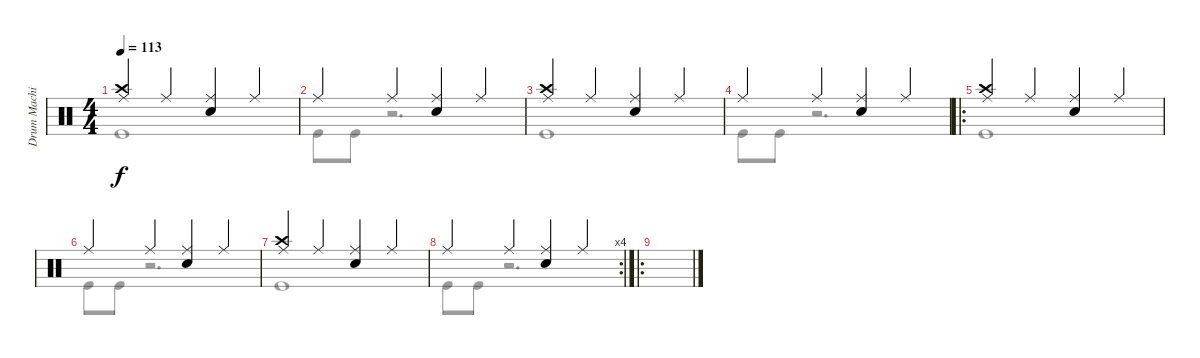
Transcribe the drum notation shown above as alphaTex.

\track ("Drum Machine" "Drum Machi") {instrument percussion}
\staff {score}
\articulation defaults
\voice
\ts (4 4)
\tempo 113
\clef neutral
\ks c
("Ride (middle)" "Crash high (hit)").4{dy f} "Ride (middle)".4 ("Ride (middle)" "Snare (hit) 2").4 "Ride (middle)".4 |
"Ride (middle)".4 "Ride (middle)".4 ("Ride (middle)" "Snare (hit) 2").4 "Ride (middle)".4 |
("Ride (middle)" "Crash high (hit)").4 "Ride (middle)".4 ("Ride (middle)" "Snare (hit) 2").4 "Ride (middle)".4 |
"Ride (middle)".4 "Ride (middle)".4 ("Ride (middle)" "Snare (hit) 2").4 "Ride (middle)".4 |
\ro
("Ride (middle)" "Crash high (hit)").4 "Ride (middle)".4 ("Ride (middle)" "Snare (hit) 2").4 "Ride (middle)".4 |
"Ride (middle)".4 "Ride (middle)".4 ("Ride (middle)" "Snare (hit) 2").4 "Ride (middle)".4 |
("Ride (middle)" "Crash high (hit)").4 "Ride (middle)".4 ("Ride (middle)" "Snare (hit) 2").4 "Ride (middle)".4 |
\rc 4 "Ride (middle)".4 "Ride (middle)".4
("Ride (middle)" "Snare (hit) 2").4 "Ride (middle)".4 |
\ro
|
|
|
|
|
|
|
\voice
\clef neutral
\ottava regular
\simile none
\ks c "Kick (hit)".1{dy f}
|
"Kick (hit)".8 "Kick (hit)".8 r.2{d} |
"Kick (hit)".1 |
"Kick (hit)".8 "Kick (hit)".8 r.2{d} |
"Kick (hit)".1 |
"Kick (hit)".8 "Kick (hit)".8 r.2{d} |
"Kick (hit)".1 |
"Kick (hit)".8 "Kick (hit)".8 r.2{d} |
|
|
|
|
|
|
|
